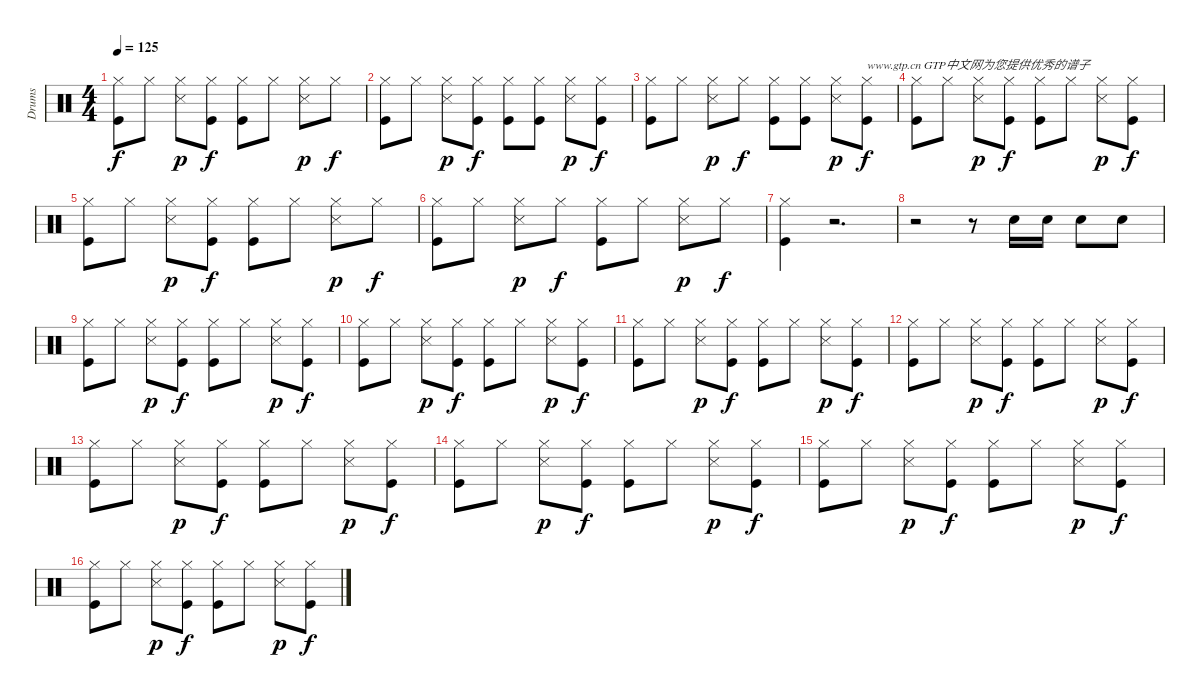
\track ("Drums" "Drums") {instrument percussion}
\staff {score}
\articulation defaults
\ts (4 4)
\tempo 125
\clef neutral
\ks c
("Hi-Hat (closed)" "Kick (hit)").8{dy f} "Hi-Hat (closed)".8 ("Hi-Hat (closed)" "Snare (side stick) 3").8{dy p} ("Hi-Hat (closed)" "Kick (hit)").8{dy f} ("Hi-Hat (closed)" "Kick (hit)").8 "Hi-Hat (closed)".8 ("Hi-Hat (closed)" "Snare (side stick) 3").8{dy p} "Hi-Hat (closed)".8{dy f} |
("Hi-Hat (closed)" "Kick (hit)").8 "Hi-Hat (closed)".8 ("Hi-Hat (closed)" "Snare (side stick) 3").8{dy p} ("Hi-Hat (closed)" "Kick (hit)").8{dy f} ("Hi-Hat (closed)" "Kick (hit)").8 ("Hi-Hat (closed)" "Kick (hit)").8 ("Hi-Hat (closed)" "Snare (side stick) 3").8{dy p} ("Hi-Hat (closed)" "Kick (hit)").8{dy f} |
("Hi-Hat (closed)" "Kick (hit)").8 "Hi-Hat (closed)".8 ("Hi-Hat (closed)" "Snare (side stick) 3").8{dy p} "Hi-Hat (closed)".8{dy f} ("Hi-Hat (closed)" "Kick (hit)").8 ("Hi-Hat (closed)" "Kick (hit)").8 ("Hi-Hat (closed)" "Snare (side stick) 3").8{dy p} ("Hi-Hat (closed)" "Kick (hit)").8{txt "www.gtp.cn GTP中文网为您提供优秀的谱子" dy f} |
("Hi-Hat (closed)" "Kick (hit)").8 "Hi-Hat (closed)".8 ("Hi-Hat (closed)" "Snare (side stick) 3").8{dy p} ("Hi-Hat (closed)" "Kick (hit)").8{dy f} ("Hi-Hat (closed)" "Kick (hit)").8 "Hi-Hat (closed)".8 ("Hi-Hat (closed)" "Snare (side stick) 3").8{dy p} ("Hi-Hat (closed)" "Kick (hit)").8{dy f} |
("Hi-Hat (closed)" "Kick (hit)").8 "Hi-Hat (closed)".8 ("Hi-Hat (closed)" "Snare (side stick) 3").8{dy p} ("Hi-Hat (closed)" "Kick (hit)").8{dy f} ("Hi-Hat (closed)" "Kick (hit)").8 "Hi-Hat (closed)".8 ("Hi-Hat (closed)" "Snare (side stick) 3").8{dy p} "Hi-Hat (closed)".8{dy f} |
("Hi-Hat (closed)" "Kick (hit)").8 "Hi-Hat (closed)".8 ("Hi-Hat (closed)" "Snare (side stick) 3").8{dy p} "Hi-Hat (closed)".8{dy f} ("Hi-Hat (closed)" "Kick (hit)").8 "Hi-Hat (closed)".8 ("Hi-Hat (closed)" "Snare (side stick) 3").8{dy p} "Hi-Hat (closed)".8{dy f} |
("Hi-Hat (closed)" "Kick (hit)").4 r.2{d} |
r.2 r.8 "Snare (hit) 2".16 "Snare (hit) 2".16 "Snare (hit) 2".8 "Snare (hit) 2".8 |
("Kick (hit)" "Hi-Hat (closed)").8 "Hi-Hat (closed)".8 ("Hi-Hat (closed)" "Snare (side stick) 3").8{dy p} ("Hi-Hat (closed)" "Kick (hit)").8{dy f} ("Hi-Hat (closed)" "Kick (hit)").8 "Hi-Hat (closed)".8 ("Hi-Hat (closed)" "Snare (side stick) 3").8{dy p} ("Hi-Hat (closed)" "Kick (hit)").8{dy f} |
("Kick (hit)" "Hi-Hat (closed)").8 "Hi-Hat (closed)".8 ("Hi-Hat (closed)" "Snare (side stick) 3").8{dy p} ("Hi-Hat (closed)" "Kick (hit)").8{dy f} ("Hi-Hat (closed)" "Kick (hit)").8 "Hi-Hat (closed)".8 ("Hi-Hat (closed)" "Snare (side stick) 3").8{dy p} ("Hi-Hat (closed)" "Kick (hit)").8{dy f} |
("Kick (hit)" "Hi-Hat (closed)").8 "Hi-Hat (closed)".8 ("Hi-Hat (closed)" "Snare (side stick) 3").8{dy p} ("Hi-Hat (closed)" "Kick (hit)").8{dy f} ("Hi-Hat (closed)" "Kick (hit)").8 "Hi-Hat (closed)".8 ("Hi-Hat (closed)" "Snare (side stick) 3").8{dy p} ("Hi-Hat (closed)" "Kick (hit)").8{dy f} |
("Kick (hit)" "Hi-Hat (closed)").8 "Hi-Hat (closed)".8 ("Hi-Hat (closed)" "Snare (side stick) 3").8{dy p} ("Hi-Hat (closed)" "Kick (hit)").8{dy f} ("Hi-Hat (closed)" "Kick (hit)").8 "Hi-Hat (closed)".8 ("Hi-Hat (closed)" "Snare (side stick) 3").8{dy p} ("Hi-Hat (closed)" "Kick (hit)").8{dy f} |
("Kick (hit)" "Hi-Hat (closed)").8 "Hi-Hat (closed)".8 ("Hi-Hat (closed)" "Snare (side stick) 3").8{dy p} ("Hi-Hat (closed)" "Kick (hit)").8{dy f} ("Hi-Hat (closed)" "Kick (hit)").8 "Hi-Hat (closed)".8 ("Hi-Hat (closed)" "Snare (side stick) 3").8{dy p} ("Hi-Hat (closed)" "Kick (hit)").8{dy f} |
("Kick (hit)" "Hi-Hat (closed)").8 "Hi-Hat (closed)".8 ("Hi-Hat (closed)" "Snare (side stick) 3").8{dy p} ("Hi-Hat (closed)" "Kick (hit)").8{dy f} ("Hi-Hat (closed)" "Kick (hit)").8 "Hi-Hat (closed)".8 ("Hi-Hat (closed)" "Snare (side stick) 3").8{dy p} ("Hi-Hat (closed)" "Kick (hit)").8{dy f} |
("Kick (hit)" "Hi-Hat (closed)").8 "Hi-Hat (closed)".8 ("Hi-Hat (closed)" "Snare (side stick) 3").8{dy p} ("Hi-Hat (closed)" "Kick (hit)").8{dy f} ("Hi-Hat (closed)" "Kick (hit)").8 "Hi-Hat (closed)".8 ("Hi-Hat (closed)" "Snare (side stick) 3").8{dy p} ("Hi-Hat (closed)" "Kick (hit)").8{dy f} |
("Kick (hit)" "Hi-Hat (closed)").8 "Hi-Hat (closed)".8 ("Hi-Hat (closed)" "Snare (side stick) 3").8{dy p} ("Hi-Hat (closed)" "Kick (hit)").8{dy f} ("Hi-Hat (closed)" "Kick (hit)").8 "Hi-Hat (closed)".8 ("Hi-Hat (closed)" "Snare (side stick) 3").8{dy p} ("Hi-Hat (closed)" "Kick (hit)").8{dy f}
